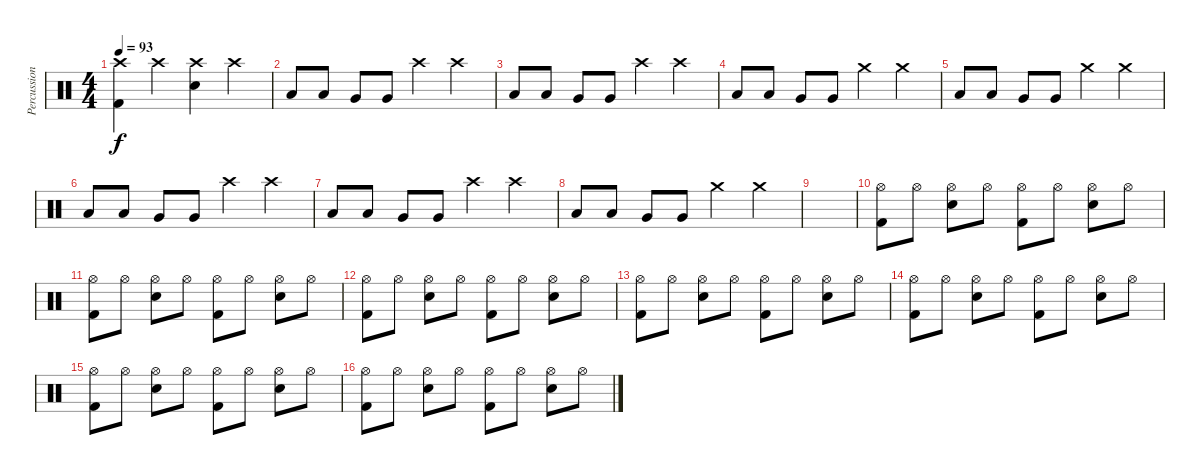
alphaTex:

\track ("Percussion" "Percussion") {instrument percussion}
\staff {score}
\articulation defaults
\ts (4 4)
\tempo 93
\clef neutral
\ks c
("Kick (hit) 2" "Crash high (hit)").4{dy f} "Crash high (hit)".4 ("Electric Snare (hit)" "Crash high (hit)").4 "Crash high (hit)".4 |
"Low Tom (hit)".8 "Low Tom (hit)".8 "Very Low Tom (hit)".8 "Very Low Tom (hit)".8 "Crash high (hit)".4 "Crash high (hit)".4 |
"Low Tom (hit)".8 "Low Tom (hit)".8 "Very Low Tom (hit)".8 "Very Low Tom (hit)".8 "Crash high (hit)".4 "Crash high (hit)".4 |
"Low Tom (hit)".8 "Low Tom (hit)".8 "Very Low Tom (hit)".8 "Very Low Tom (hit)".8 "Crash medium (hit)".4 "Crash medium (hit)".4 |
"Low Tom (hit)".8 "Low Tom (hit)".8 "Very Low Tom (hit)".8 "Very Low Tom (hit)".8 "Crash medium (hit)".4 "Crash medium (hit)".4 |
"Low Tom (hit)".8 "Low Tom (hit)".8 "Very Low Tom (hit)".8 "Very Low Tom (hit)".8 "Crash high (hit)".4 "Crash high (hit)".4 |
"Low Tom (hit)".8 "Low Tom (hit)".8 "Very Low Tom (hit)".8 "Very Low Tom (hit)".8 "Crash high (hit)".4 "Crash high (hit)".4 |
"Low Tom (hit)".8 "Low Tom (hit)".8 "Very Low Tom (hit)".8 "Very Low Tom (hit)".8 "Crash medium (hit)".4 "Crash medium (hit)".4 |
|
("Kick (hit) 2" "Hi-Hat (open)").8 "Hi-Hat (open)".8 ("Electric Snare (hit)" "Hi-Hat (open)").8 "Hi-Hat (open)".8 ("Kick (hit) 2" "Hi-Hat (open)").8 "Hi-Hat (open)".8 ("Electric Snare (hit)" "Hi-Hat (open)").8 "Hi-Hat (open)".8 |
("Kick (hit) 2" "Hi-Hat (open)").8 "Hi-Hat (open)".8 ("Electric Snare (hit)" "Hi-Hat (open)").8 "Hi-Hat (open)".8 ("Kick (hit) 2" "Hi-Hat (open)").8 "Hi-Hat (open)".8 ("Electric Snare (hit)" "Hi-Hat (open)").8 "Hi-Hat (open)".8 |
("Kick (hit) 2" "Hi-Hat (open)").8 "Hi-Hat (open)".8 ("Electric Snare (hit)" "Hi-Hat (open)").8 "Hi-Hat (open)".8 ("Kick (hit) 2" "Hi-Hat (open)").8 "Hi-Hat (open)".8 ("Electric Snare (hit)" "Hi-Hat (open)").8 "Hi-Hat (open)".8 |
("Kick (hit) 2" "Hi-Hat (open)").8 "Hi-Hat (open)".8 ("Electric Snare (hit)" "Hi-Hat (open)").8 "Hi-Hat (open)".8 ("Kick (hit) 2" "Hi-Hat (open)").8 "Hi-Hat (open)".8 ("Electric Snare (hit)" "Hi-Hat (open)").8 "Hi-Hat (open)".8 |
("Kick (hit) 2" "Hi-Hat (open)").8 "Hi-Hat (open)".8 ("Electric Snare (hit)" "Hi-Hat (open)").8 "Hi-Hat (open)".8 ("Kick (hit) 2" "Hi-Hat (open)").8 "Hi-Hat (open)".8 ("Electric Snare (hit)" "Hi-Hat (open)").8 "Hi-Hat (open)".8 |
("Kick (hit) 2" "Hi-Hat (open)").8 "Hi-Hat (open)".8 ("Electric Snare (hit)" "Hi-Hat (open)").8 "Hi-Hat (open)".8 ("Kick (hit) 2" "Hi-Hat (open)").8 "Hi-Hat (open)".8 ("Electric Snare (hit)" "Hi-Hat (open)").8 "Hi-Hat (open)".8 |
("Kick (hit) 2" "Hi-Hat (open)").8 "Hi-Hat (open)".8 ("Electric Snare (hit)" "Hi-Hat (open)").8 "Hi-Hat (open)".8 ("Kick (hit) 2" "Hi-Hat (open)").8 "Hi-Hat (open)".8 ("Electric Snare (hit)" "Hi-Hat (open)").8 "Hi-Hat (open)".8
